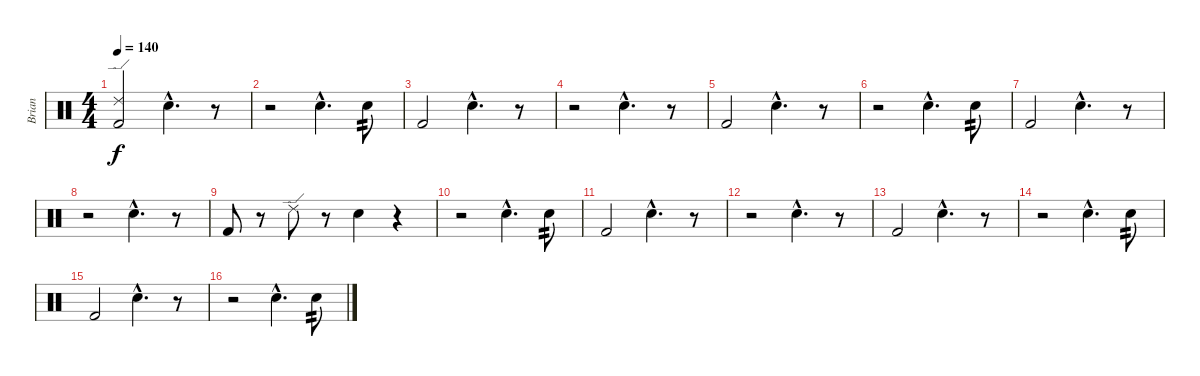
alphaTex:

\track ("Brian" "Brian") {instrument percussion}
\staff {score}
\articulation defaults
\ts (4 4)
\tempo 140
\clef neutral
\ks c
("Ride (edge) 2" "Kick (hit) 2").2{dy f} "Electric Snare (hit)"{hac}.4{d} r.8 |
r.2 "Electric Snare (hit)"{hac}.4{d} "Electric Snare (hit)".8{tp 2} |
"Kick (hit) 2".2 "Electric Snare (hit)"{hac}.4{d} r.8 |
r.2 "Electric Snare (hit)"{hac}.4{d} r.8 |
"Kick (hit) 2".2 "Electric Snare (hit)"{hac}.4{d} r.8 |
r.2 "Electric Snare (hit)"{hac}.4{d} "Electric Snare (hit)".8{tp 2} |
"Kick (hit) 2".2 "Electric Snare (hit)"{hac}.4{d} r.8 |
r.2 "Electric Snare (hit)"{hac}.4{d} r.8 |
"Kick (hit) 2".8 r.8 "Ride (edge) 2".8 r.8 "Electric Snare (hit)".4 r.4 |
r.2 "Electric Snare (hit)"{hac}.4{d} "Electric Snare (hit)".8{tp 2} |
"Kick (hit) 2".2 "Electric Snare (hit)"{hac}.4{d} r.8 |
r.2 "Electric Snare (hit)"{hac}.4{d} r.8 |
"Kick (hit) 2".2 "Electric Snare (hit)"{hac}.4{d} r.8 |
r.2 "Electric Snare (hit)"{hac}.4{d} "Electric Snare (hit)".8{tp 2} |
"Kick (hit) 2".2 "Electric Snare (hit)"{hac}.4{d} r.8 |
r.2 "Electric Snare (hit)"{hac}.4{d} "Electric Snare (hit)".8{tp 2}
